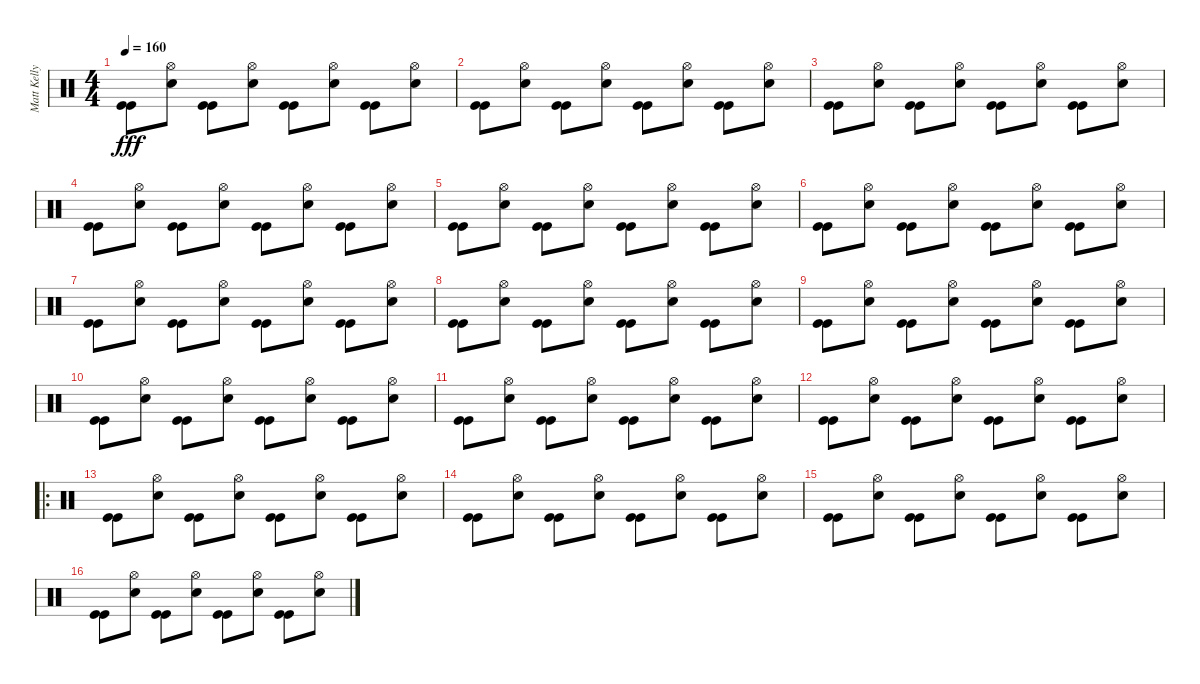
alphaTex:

\track ("Matt Kelly" "Matt Kelly") {instrument percussion}
\staff {score}
\articulation defaults
\ts (4 4)
\tempo 160
\clef neutral
\ks c
("Kick (hit)" "Kick (hit)").8{dy fff} ("Snare (hit) 2" "Hi-Hat (open)").8 ("Kick (hit)" "Kick (hit)").8 ("Snare (hit) 2" "Hi-Hat (open)").8 ("Kick (hit)" "Kick (hit)").8 ("Snare (hit) 2" "Hi-Hat (open)").8 ("Kick (hit)" "Kick (hit)").8 ("Snare (hit) 2" "Hi-Hat (open)").8 |
("Kick (hit)" "Kick (hit)").8 ("Snare (hit) 2" "Hi-Hat (open)").8 ("Kick (hit)" "Kick (hit)").8 ("Snare (hit) 2" "Hi-Hat (open)").8 ("Kick (hit)" "Kick (hit)").8 ("Snare (hit) 2" "Hi-Hat (open)").8 ("Kick (hit)" "Kick (hit)").8 ("Snare (hit) 2" "Hi-Hat (open)").8 |
("Kick (hit)" "Kick (hit)").8 ("Snare (hit) 2" "Hi-Hat (open)").8 ("Kick (hit)" "Kick (hit)").8 ("Snare (hit) 2" "Hi-Hat (open)").8 ("Kick (hit)" "Kick (hit)").8 ("Snare (hit) 2" "Hi-Hat (open)").8 ("Kick (hit)" "Kick (hit)").8 ("Snare (hit) 2" "Hi-Hat (open)").8 |
("Kick (hit)" "Kick (hit)").8 ("Snare (hit) 2" "Hi-Hat (open)").8 ("Kick (hit)" "Kick (hit)").8 ("Snare (hit) 2" "Hi-Hat (open)").8 ("Kick (hit)" "Kick (hit)").8 ("Snare (hit) 2" "Hi-Hat (open)").8 ("Kick (hit)" "Kick (hit)").8 ("Snare (hit) 2" "Hi-Hat (open)").8 |
("Kick (hit)" "Kick (hit)").8 ("Snare (hit) 2" "Hi-Hat (open)").8 ("Kick (hit)" "Kick (hit)").8 ("Snare (hit) 2" "Hi-Hat (open)").8 ("Kick (hit)" "Kick (hit)").8 ("Snare (hit) 2" "Hi-Hat (open)").8 ("Kick (hit)" "Kick (hit)").8 ("Snare (hit) 2" "Hi-Hat (open)").8 |
("Kick (hit)" "Kick (hit)").8 ("Snare (hit) 2" "Hi-Hat (open)").8 ("Kick (hit)" "Kick (hit)").8 ("Snare (hit) 2" "Hi-Hat (open)").8 ("Kick (hit)" "Kick (hit)").8 ("Snare (hit) 2" "Hi-Hat (open)").8 ("Kick (hit)" "Kick (hit)").8 ("Snare (hit) 2" "Hi-Hat (open)").8 |
("Kick (hit)" "Kick (hit)").8 ("Snare (hit) 2" "Hi-Hat (open)").8 ("Kick (hit)" "Kick (hit)").8 ("Snare (hit) 2" "Hi-Hat (open)").8 ("Kick (hit)" "Kick (hit)").8 ("Snare (hit) 2" "Hi-Hat (open)").8 ("Kick (hit)" "Kick (hit)").8 ("Snare (hit) 2" "Hi-Hat (open)").8 |
("Kick (hit)" "Kick (hit)").8 ("Snare (hit) 2" "Hi-Hat (open)").8 ("Kick (hit)" "Kick (hit)").8 ("Snare (hit) 2" "Hi-Hat (open)").8 ("Kick (hit)" "Kick (hit)").8 ("Snare (hit) 2" "Hi-Hat (open)").8 ("Kick (hit)" "Kick (hit)").8 ("Snare (hit) 2" "Hi-Hat (open)").8 |
("Kick (hit)" "Kick (hit)").8 ("Snare (hit) 2" "Hi-Hat (open)").8 ("Kick (hit)" "Kick (hit)").8 ("Snare (hit) 2" "Hi-Hat (open)").8 ("Kick (hit)" "Kick (hit)").8 ("Snare (hit) 2" "Hi-Hat (open)").8 ("Kick (hit)" "Kick (hit)").8 ("Snare (hit) 2" "Hi-Hat (open)").8 |
("Kick (hit)" "Kick (hit)").8 ("Snare (hit) 2" "Hi-Hat (open)").8 ("Kick (hit)" "Kick (hit)").8 ("Snare (hit) 2" "Hi-Hat (open)").8 ("Kick (hit)" "Kick (hit)").8 ("Snare (hit) 2" "Hi-Hat (open)").8 ("Kick (hit)" "Kick (hit)").8 ("Snare (hit) 2" "Hi-Hat (open)").8 |
("Kick (hit)" "Kick (hit)").8 ("Snare (hit) 2" "Hi-Hat (open)").8 ("Kick (hit)" "Kick (hit)").8 ("Snare (hit) 2" "Hi-Hat (open)").8 ("Kick (hit)" "Kick (hit)").8 ("Snare (hit) 2" "Hi-Hat (open)").8 ("Kick (hit)" "Kick (hit)").8 ("Snare (hit) 2" "Hi-Hat (open)").8 |
("Kick (hit)" "Kick (hit)").8 ("Snare (hit) 2" "Hi-Hat (open)").8 ("Kick (hit)" "Kick (hit)").8 ("Snare (hit) 2" "Hi-Hat (open)").8 ("Kick (hit)" "Kick (hit)").8 ("Snare (hit) 2" "Hi-Hat (open)").8 ("Kick (hit)" "Kick (hit)").8 ("Snare (hit) 2" "Hi-Hat (open)").8 |
\ro
("Kick (hit)" "Kick (hit)").8 ("Snare (hit) 2" "Hi-Hat (open)").8 ("Kick (hit)" "Kick (hit)").8 ("Snare (hit) 2" "Hi-Hat (open)").8 ("Kick (hit)" "Kick (hit)").8 ("Snare (hit) 2" "Hi-Hat (open)").8 ("Kick (hit)" "Kick (hit)").8 ("Snare (hit) 2" "Hi-Hat (open)").8 |
("Kick (hit)" "Kick (hit)").8 ("Snare (hit) 2" "Hi-Hat (open)").8 ("Kick (hit)" "Kick (hit)").8 ("Snare (hit) 2" "Hi-Hat (open)").8 ("Kick (hit)" "Kick (hit)").8 ("Snare (hit) 2" "Hi-Hat (open)").8 ("Kick (hit)" "Kick (hit)").8 ("Snare (hit) 2" "Hi-Hat (open)").8 |
("Kick (hit)" "Kick (hit)").8 ("Snare (hit) 2" "Hi-Hat (open)").8 ("Kick (hit)" "Kick (hit)").8 ("Snare (hit) 2" "Hi-Hat (open)").8 ("Kick (hit)" "Kick (hit)").8 ("Snare (hit) 2" "Hi-Hat (open)").8 ("Kick (hit)" "Kick (hit)").8 ("Snare (hit) 2" "Hi-Hat (open)").8 |
("Kick (hit)" "Kick (hit)").8 ("Snare (hit) 2" "Hi-Hat (open)").8 ("Kick (hit)" "Kick (hit)").8 ("Snare (hit) 2" "Hi-Hat (open)").8 ("Kick (hit)" "Kick (hit)").8 ("Snare (hit) 2" "Hi-Hat (open)").8 ("Kick (hit)" "Kick (hit)").8 ("Snare (hit) 2" "Hi-Hat (open)").8
